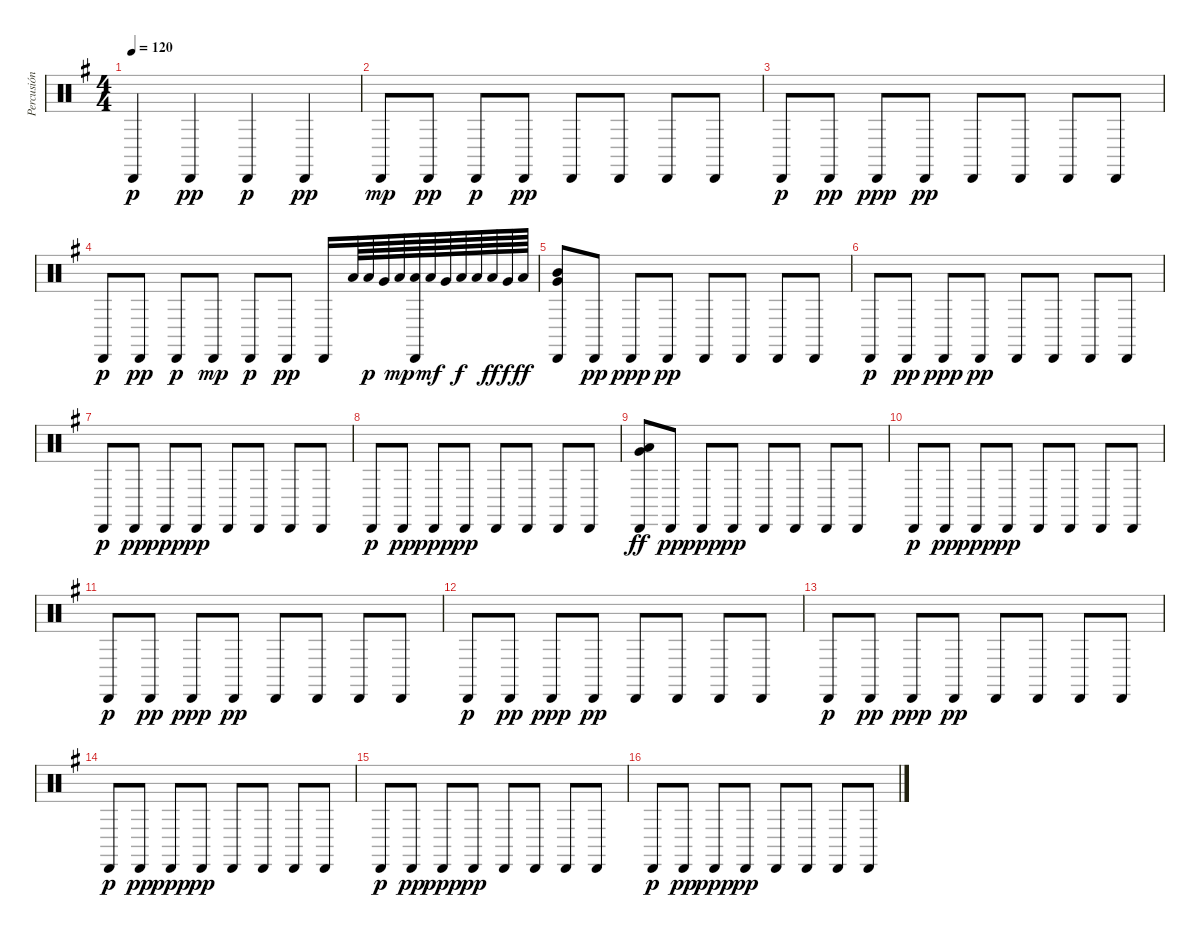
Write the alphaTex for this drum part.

\track ("Percusión" "Percusión") {instrument percussion}
\staff {score}
\articulation defaults
\ts (4 4)
\tempo 120
\clef neutral
\ks g "Cabasa (hit)".4{dy p} "Cabasa (hit)".4{dy pp} "Cabasa (hit)".4{dy p} "Cabasa (hit)".4{dy pp}
|
"Cabasa (hit)".8{dy mp} "Cabasa (hit)".8{dy pp} "Cabasa (hit)".8{dy p} "Cabasa (hit)".8{dy pp} "Cabasa (hit)".8 "Cabasa (hit)".8 "Cabasa (hit)".8 "Cabasa (hit)".8 |
"Cabasa (hit)".8{dy p} "Cabasa (hit)".8{dy pp} "Cabasa (hit)".8{dy ppp} "Cabasa (hit)".8{dy pp} "Cabasa (hit)".8 "Cabasa (hit)".8 "Cabasa (hit)".8 "Cabasa (hit)".8 |
"Cabasa (hit)".8{dy p} "Cabasa (hit)".8{dy pp} "Cabasa (hit)".8{dy p} "Cabasa (hit)".8{dy mp} "Cabasa (hit)".8{dy p} "Cabasa (hit)".8{dy pp} "Cabasa (hit)".16 "Low Floor Tom (hit)".64 "Low Tom (hit)".64{dy p} "Very Low Tom (hit)".64 "Low Tom (hit)".64{dy mp} ("Cabasa (hit)" "Low Floor Tom (hit)").64 "Low Tom (hit)".64{dy mf} "Very Low Tom (hit)".64 "Low Tom (hit)".64{dy f} "Low Floor Tom (hit)".64 "Low Tom (hit)".64{dy ff} "Very Low Tom (hit)".64{dy f} "Low Tom (hit)".64{dy ff} |
("Cabasa (hit)" "Mid Tom (hit)" "Very Low Tom (hit)").8 "Cabasa (hit)".8{dy pp} "Cabasa (hit)".8{dy ppp} "Cabasa (hit)".8{dy pp} "Cabasa (hit)".8 "Cabasa (hit)".8 "Cabasa (hit)".8 "Cabasa (hit)".8 |
"Cabasa (hit)".8{dy p} "Cabasa (hit)".8{dy pp} "Cabasa (hit)".8{dy ppp} "Cabasa (hit)".8{dy pp} "Cabasa (hit)".8 "Cabasa (hit)".8 "Cabasa (hit)".8 "Cabasa (hit)".8 |
"Cabasa (hit)".8{dy p} "Cabasa (hit)".8{dy pp} "Cabasa (hit)".8{dy ppp} "Cabasa (hit)".8{dy pp} "Cabasa (hit)".8 "Cabasa (hit)".8 "Cabasa (hit)".8 "Cabasa (hit)".8 |
"Cabasa (hit)".8{dy p} "Cabasa (hit)".8{dy pp} "Cabasa (hit)".8{dy ppp} "Cabasa (hit)".8{dy pp} "Cabasa (hit)".8 "Cabasa (hit)".8 "Cabasa (hit)".8 "Cabasa (hit)".8 |
("Cabasa (hit)" "Low Floor Tom (hit)" "Very Low Tom (hit)").8{dy ff} "Cabasa (hit)".8{dy pp} "Cabasa (hit)".8{dy ppp} "Cabasa (hit)".8{dy pp} "Cabasa (hit)".8 "Cabasa (hit)".8 "Cabasa (hit)".8 "Cabasa (hit)".8 |
"Cabasa (hit)".8{dy p} "Cabasa (hit)".8{dy pp} "Cabasa (hit)".8{dy ppp} "Cabasa (hit)".8{dy pp} "Cabasa (hit)".8 "Cabasa (hit)".8 "Cabasa (hit)".8 "Cabasa (hit)".8 |
"Cabasa (hit)".8{dy p} "Cabasa (hit)".8{dy pp} "Cabasa (hit)".8{dy ppp} "Cabasa (hit)".8{dy pp} "Cabasa (hit)".8 "Cabasa (hit)".8 "Cabasa (hit)".8 "Cabasa (hit)".8 |
"Cabasa (hit)".8{dy p} "Cabasa (hit)".8{dy pp} "Cabasa (hit)".8{dy ppp} "Cabasa (hit)".8{dy pp} "Cabasa (hit)".8 "Cabasa (hit)".8 "Cabasa (hit)".8 "Cabasa (hit)".8 |
"Cabasa (hit)".8{dy p} "Cabasa (hit)".8{dy pp} "Cabasa (hit)".8{dy ppp} "Cabasa (hit)".8{dy pp} "Cabasa (hit)".8 "Cabasa (hit)".8 "Cabasa (hit)".8 "Cabasa (hit)".8 |
"Cabasa (hit)".8{dy p} "Cabasa (hit)".8{dy pp} "Cabasa (hit)".8{dy ppp} "Cabasa (hit)".8{dy pp} "Cabasa (hit)".8 "Cabasa (hit)".8 "Cabasa (hit)".8 "Cabasa (hit)".8 |
"Cabasa (hit)".8{dy p} "Cabasa (hit)".8{dy pp} "Cabasa (hit)".8{dy ppp} "Cabasa (hit)".8{dy pp} "Cabasa (hit)".8 "Cabasa (hit)".8 "Cabasa (hit)".8 "Cabasa (hit)".8 |
"Cabasa (hit)".8{dy p} "Cabasa (hit)".8{dy pp} "Cabasa (hit)".8{dy ppp} "Cabasa (hit)".8{dy pp} "Cabasa (hit)".8 "Cabasa (hit)".8 "Cabasa (hit)".8 "Cabasa (hit)".8
